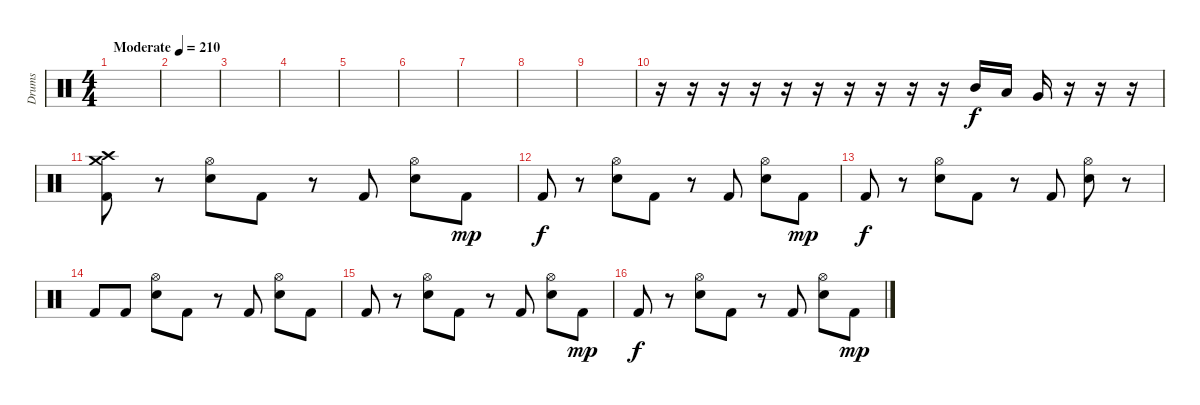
\track ("Drums" "Drums") {instrument percussion}
\staff {score}
\articulation defaults
\ts (4 4)
\tempo (210 "Moderate")
\clef neutral
\ks c
|
|
|
|
|
|
|
|
|
r.16 r.16 r.16 r.16 r.16 r.16 r.16 r.16 r.16 r.16 "Mid Tom (hit)".16 "Low Tom (hit)".16 "Very Low Tom (hit)".16 r.16 r.16 r.16 |
("Crash high (hit)" "Crash medium (hit)" "Kick (hit) 2").8 r.8 ("Hi-Hat (open)" "Electric Snare (hit)").8 "Kick (hit) 2".8 r.8 "Kick (hit) 2".8 ("Hi-Hat (open)" "Electric Snare (hit)").8 "Kick (hit) 2".8{dy mp} |
"Kick (hit) 2".8{dy f} r.8 ("Hi-Hat (open)" "Electric Snare (hit)").8 "Kick (hit) 2".8 r.8 "Kick (hit) 2".8 ("Hi-Hat (open)" "Electric Snare (hit)").8 "Kick (hit) 2".8{dy mp} |
"Kick (hit) 2".8{dy f} r.8 ("Hi-Hat (open)" "Electric Snare (hit)").8 "Kick (hit) 2".8 r.8 "Kick (hit) 2".8 ("Hi-Hat (open)" "Electric Snare (hit)").8 r.8 |
"Kick (hit) 2".8 "Kick (hit) 2".8 ("Hi-Hat (open)" "Electric Snare (hit)").8 "Kick (hit) 2".8 r.8 "Kick (hit) 2".8 ("Hi-Hat (open)" "Electric Snare (hit)").8 "Kick (hit) 2".8 |
"Kick (hit) 2".8 r.8 ("Hi-Hat (open)" "Electric Snare (hit)").8 "Kick (hit) 2".8 r.8 "Kick (hit) 2".8 ("Hi-Hat (open)" "Electric Snare (hit)").8 "Kick (hit) 2".8{dy mp} |
"Kick (hit) 2".8{dy f} r.8 ("Hi-Hat (open)" "Electric Snare (hit)").8 "Kick (hit) 2".8 r.8 "Kick (hit) 2".8 ("Hi-Hat (open)" "Electric Snare (hit)").8 "Kick (hit) 2".8{dy mp}
